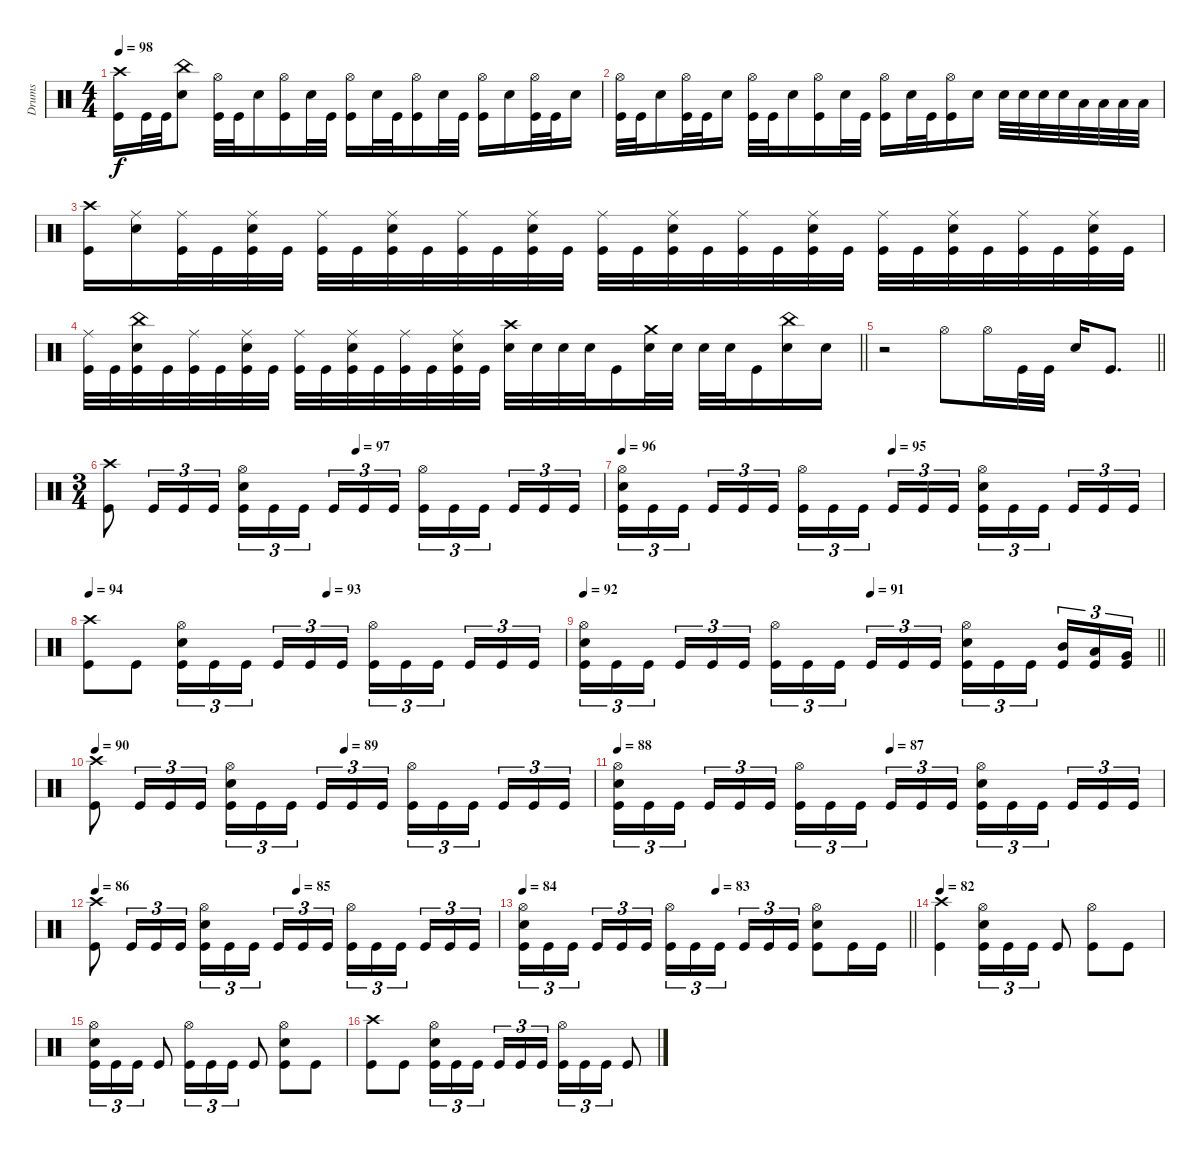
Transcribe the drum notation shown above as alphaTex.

\track ("Drums" "Drums") {instrument percussion}
\staff
\articulation defaults
\ts (4 4)
\tempo 98
\clef neutral
\ks c
("Crash high (hit)" "Kick (hit)").16{dy f} "Kick (hit)".32 "Kick (hit)".32 ("China (hit)" "Electric Snare (hit)").8 ("Hi-Hat (open)" "Kick (hit)").32 "Kick (hit)".32 "Electric Snare (hit)".16 ("Hi-Hat (open)" "Kick (hit)").16 "Electric Snare (hit)".32 "Kick (hit)".32 ("Hi-Hat (open)" "Kick (hit)").16 "Electric Snare (hit)".32 "Kick (hit)".32 ("Hi-Hat (open)" "Kick (hit)").16 "Electric Snare (hit)".32 "Kick (hit)".32 ("Hi-Hat (open)" "Kick (hit)").16 "Electric Snare (hit)".16 ("Hi-Hat (open)" "Kick (hit)").32 "Kick (hit)".32 "Electric Snare (hit)".16 |
("Hi-Hat (open)" "Kick (hit)").32 "Kick (hit)".32 "Electric Snare (hit)".16 ("Hi-Hat (open)" "Kick (hit)").32 "Kick (hit)".32 "Electric Snare (hit)".16 ("Hi-Hat (open)" "Kick (hit)").32 "Kick (hit)".32 "Electric Snare (hit)".16 ("Hi-Hat (open)" "Kick (hit)").16 "Electric Snare (hit)".32 "Kick (hit)".32 ("Hi-Hat (open)" "Kick (hit)").16 "Electric Snare (hit)".32 "Kick (hit)".32 ("Hi-Hat (open)" "Kick (hit)").16 "Electric Snare (hit)".16 "Electric Snare (hit)".32 "Electric Snare (hit)".32 "Electric Snare (hit)".32 "Electric Snare (hit)".32 "Low Tom (hit)".32 "Low Tom (hit)".32 "Low Tom (hit)".32 "Low Tom (hit)".32 |
("Crash high (hit)" "Kick (hit)").16 ("Ride (middle)" "Electric Snare (hit)").16 ("Ride (middle)" "Kick (hit)").32 "Kick (hit)".32 ("Ride (middle)" "Electric Snare (hit)" "Kick (hit)").32 "Kick (hit)".32 ("Ride (middle)" "Kick (hit)").32 "Kick (hit)".32 ("Ride (middle)" "Electric Snare (hit)" "Kick (hit)").32 "Kick (hit)".32 ("Ride (middle)" "Kick (hit)").32 "Kick (hit)".32 ("Ride (middle)" "Electric Snare (hit)" "Kick (hit)").32 "Kick (hit)".32 ("Ride (middle)" "Kick (hit)").32 "Kick (hit)".32 ("Ride (middle)" "Electric Snare (hit)" "Kick (hit)").32 "Kick (hit)".32 ("Ride (middle)" "Kick (hit)").32 "Kick (hit)".32 ("Ride (middle)" "Electric Snare (hit)" "Kick (hit)").32 "Kick (hit)".32 ("Ride (middle)" "Kick (hit)").32 "Kick (hit)".32 ("Ride (middle)" "Electric Snare (hit)" "Kick (hit)").32 "Kick (hit)".32 ("Ride (middle)" "Kick (hit)").32 "Kick (hit)".32 ("Ride (middle)" "Electric Snare (hit)" "Kick (hit)").32 "Kick (hit)".32 |
\barLineRight lightlight
("Ride (middle)" "Kick (hit)").32 "Kick (hit)".32 ("China (hit)" "Electric Snare (hit)" "Kick (hit)").32 "Kick (hit)".32 ("Ride (middle)" "Kick (hit)").32 "Kick (hit)".32 ("Ride (middle)" "Electric Snare (hit)" "Kick (hit)").32 "Kick (hit)".32 ("Ride (middle)" "Kick (hit)").32 "Kick (hit)".32 ("Ride (middle)" "Electric Snare (hit)" "Kick (hit)").32 "Kick (hit)".32 ("Ride (middle)" "Kick (hit)").32 "Kick (hit)".32 ("Ride (middle)" "Electric Snare (hit)" "Kick (hit)").32 "Kick (hit)".32 ("Crash high (hit)" "Electric Snare (hit)").32 "Electric Snare (hit)".32 "Electric Snare (hit)".32 "Electric Snare (hit)".32 "Kick (hit)".16 ("Crash medium (hit)" "Electric Snare (hit)").32 "Electric Snare (hit)".32 "Electric Snare (hit)".32 "Electric Snare (hit)".32 "Kick (hit)".16 ("China (hit)" "Electric Snare (hit)").16 "Electric Snare (hit)".16 |
\barLineRight lightlight
r.2 "Hi-Hat (open)".8 "Hi-Hat (open)".16 "Kick (hit)".32 "Kick (hit)".32 "Electric Snare (hit)".16 "Kick (hit)".8{d} |
\ts (3 4)
\section ("" "")
\tempo (97 0.5)
("Crash high (hit)" "Kick (hit)").8 "Kick (hit)".16{tu (3 2)} "Kick (hit)".16{tu (3 2)} "Kick (hit)".16{tu (3 2)} ("Hi-Hat (open)" "Electric Snare (hit)" "Kick (hit)").16{tu (3 2)} "Kick (hit)".16{tu (3 2)} "Kick (hit)".16{tu (3 2) beam splitsecondary} "Kick (hit)".16{tu (3 2)} "Kick (hit)".16{tu (3 2)} "Kick (hit)".16{tu (3 2)} ("Hi-Hat (open)" "Kick (hit)").16{tu (3 2)} "Kick (hit)".16{tu (3 2)} "Kick (hit)".16{tu (3 2) beam splitsecondary} "Kick (hit)".16{tu (3 2)} "Kick (hit)".16{tu (3 2)} "Kick (hit)".16{tu (3 2)} |
\tempo 96
\tempo (95 0.5)
("Hi-Hat (open)" "Electric Snare (hit)" "Kick (hit)").16{tu (3 2)} "Kick (hit)".16{tu (3 2)} "Kick (hit)".16{tu (3 2) beam splitsecondary} "Kick (hit)".16{tu (3 2)} "Kick (hit)".16{tu (3 2)} "Kick (hit)".16{tu (3 2)} ("Hi-Hat (open)" "Kick (hit)").16{tu (3 2)} "Kick (hit)".16{tu (3 2)} "Kick (hit)".16{tu (3 2) beam splitsecondary} "Kick (hit)".16{tu (3 2)} "Kick (hit)".16{tu (3 2)} "Kick (hit)".16{tu (3 2)} ("Hi-Hat (open)" "Electric Snare (hit)" "Kick (hit)").16{tu (3 2)} "Kick (hit)".16{tu (3 2)} "Kick (hit)".16{tu (3 2) beam splitsecondary} "Kick (hit)".16{tu (3 2)} "Kick (hit)".16{tu (3 2)} "Kick (hit)".16{tu (3 2)} |
\tempo 94
\tempo (93 0.5)
("Crash high (hit)" "Kick (hit)").8 "Kick (hit)".8 ("Hi-Hat (open)" "Electric Snare (hit)" "Kick (hit)").16{tu (3 2)} "Kick (hit)".16{tu (3 2)} "Kick (hit)".16{tu (3 2) beam splitsecondary} "Kick (hit)".16{tu (3 2)} "Kick (hit)".16{tu (3 2)} "Kick (hit)".16{tu (3 2)} ("Hi-Hat (open)" "Kick (hit)").16{tu (3 2)} "Kick (hit)".16{tu (3 2)} "Kick (hit)".16{tu (3 2) beam splitsecondary} "Kick (hit)".16{tu (3 2)} "Kick (hit)".16{tu (3 2)} "Kick (hit)".16{tu (3 2)} |
\tempo 92
\tempo (91 0.5)
\barLineRight lightlight
("Hi-Hat (open)" "Electric Snare (hit)" "Kick (hit)").16{tu (3 2)} "Kick (hit)".16{tu (3 2)} "Kick (hit)".16{tu (3 2) beam splitsecondary} "Kick (hit)".16{tu (3 2)} "Kick (hit)".16{tu (3 2)} "Kick (hit)".16{tu (3 2)} ("Hi-Hat (open)" "Kick (hit)").16{tu (3 2)} "Kick (hit)".16{tu (3 2)} "Kick (hit)".16{tu (3 2) beam splitsecondary} "Kick (hit)".16{tu (3 2)} "Kick (hit)".16{tu (3 2)} "Kick (hit)".16{tu (3 2)} ("Hi-Hat (open)" "Electric Snare (hit)" "Kick (hit)").16{tu (3 2)} "Kick (hit)".16{tu (3 2)} "Kick (hit)".16{tu (3 2) beam splitsecondary} ("Mid Tom (hit)" "Kick (hit)").16{tu (3 2)} ("Low Tom (hit)" "Kick (hit)").16{tu (3 2)} ("Very Low Tom (hit)" "Kick (hit)").16{tu (3 2)} |
\tempo 90
\tempo (89 0.5)
("Crash high (hit)" "Kick (hit)").8 "Kick (hit)".16{tu (3 2)} "Kick (hit)".16{tu (3 2)} "Kick (hit)".16{tu (3 2)} ("Hi-Hat (open)" "Electric Snare (hit)" "Kick (hit)").16{tu (3 2)} "Kick (hit)".16{tu (3 2)} "Kick (hit)".16{tu (3 2) beam splitsecondary} "Kick (hit)".16{tu (3 2)} "Kick (hit)".16{tu (3 2)} "Kick (hit)".16{tu (3 2)} ("Hi-Hat (open)" "Kick (hit)").16{tu (3 2)} "Kick (hit)".16{tu (3 2)} "Kick (hit)".16{tu (3 2) beam splitsecondary} "Kick (hit)".16{tu (3 2)} "Kick (hit)".16{tu (3 2)} "Kick (hit)".16{tu (3 2)} |
\tempo 88
\tempo (87 0.5)
("Hi-Hat (open)" "Electric Snare (hit)" "Kick (hit)").16{tu (3 2)} "Kick (hit)".16{tu (3 2)} "Kick (hit)".16{tu (3 2) beam splitsecondary} "Kick (hit)".16{tu (3 2)} "Kick (hit)".16{tu (3 2)} "Kick (hit)".16{tu (3 2)} ("Hi-Hat (open)" "Kick (hit)").16{tu (3 2)} "Kick (hit)".16{tu (3 2)} "Kick (hit)".16{tu (3 2) beam splitsecondary} "Kick (hit)".16{tu (3 2)} "Kick (hit)".16{tu (3 2)} "Kick (hit)".16{tu (3 2)} ("Hi-Hat (open)" "Electric Snare (hit)" "Kick (hit)").16{tu (3 2)} "Kick (hit)".16{tu (3 2)} "Kick (hit)".16{tu (3 2) beam splitsecondary} "Kick (hit)".16{tu (3 2)} "Kick (hit)".16{tu (3 2)} "Kick (hit)".16{tu (3 2)} |
\tempo 86
\tempo (85 0.5)
("Crash high (hit)" "Kick (hit)").8 "Kick (hit)".16{tu (3 2)} "Kick (hit)".16{tu (3 2)} "Kick (hit)".16{tu (3 2)} ("Hi-Hat (open)" "Electric Snare (hit)" "Kick (hit)").16{tu (3 2)} "Kick (hit)".16{tu (3 2)} "Kick (hit)".16{tu (3 2) beam splitsecondary} "Kick (hit)".16{tu (3 2)} "Kick (hit)".16{tu (3 2)} "Kick (hit)".16{tu (3 2)} ("Hi-Hat (open)" "Kick (hit)").16{tu (3 2)} "Kick (hit)".16{tu (3 2)} "Kick (hit)".16{tu (3 2) beam splitsecondary} "Kick (hit)".16{tu (3 2)} "Kick (hit)".16{tu (3 2)} "Kick (hit)".16{tu (3 2)} |
\tempo 84
\tempo (83 0.5)
\barLineRight lightlight
("Hi-Hat (open)" "Electric Snare (hit)" "Kick (hit)").16{tu (3 2)} "Kick (hit)".16{tu (3 2)} "Kick (hit)".16{tu (3 2) beam splitsecondary} "Kick (hit)".16{tu (3 2)} "Kick (hit)".16{tu (3 2)} "Kick (hit)".16{tu (3 2)} ("Hi-Hat (open)" "Kick (hit)").16{tu (3 2)} "Kick (hit)".16{tu (3 2)} "Kick (hit)".16{tu (3 2) beam splitsecondary} "Kick (hit)".16{tu (3 2)} "Kick (hit)".16{tu (3 2)} "Kick (hit)".16{tu (3 2)} ("Hi-Hat (open)" "Electric Snare (hit)" "Kick (hit)").8 "Kick (hit)".16 "Kick (hit)".16 |
\tempo 82
("Crash high (hit)" "Kick (hit)").4 ("Hi-Hat (open)" "Electric Snare (hit)" "Kick (hit)").16{tu (3 2)} "Kick (hit)".16{tu (3 2)} "Kick (hit)".16{tu (3 2)} "Kick (hit)".8 ("Hi-Hat (open)" "Kick (hit)").8 "Kick (hit)".8 |
("Hi-Hat (open)" "Electric Snare (hit)" "Kick (hit)").16{tu (3 2)} "Kick (hit)".16{tu (3 2)} "Kick (hit)".16{tu (3 2)} "Kick (hit)".8 ("Hi-Hat (open)" "Kick (hit)").16{tu (3 2)} "Kick (hit)".16{tu (3 2)} "Kick (hit)".16{tu (3 2)} "Kick (hit)".8 ("Hi-Hat (open)" "Electric Snare (hit)" "Kick (hit)").8 "Kick (hit)".8 |
("Crash high (hit)" "Kick (hit)").8 "Kick (hit)".8 ("Hi-Hat (open)" "Electric Snare (hit)" "Kick (hit)").16{tu (3 2)} "Kick (hit)".16{tu (3 2)} "Kick (hit)".16{tu (3 2) beam splitsecondary} "Kick (hit)".16{tu (3 2)} "Kick (hit)".16{tu (3 2)} "Kick (hit)".16{tu (3 2)} ("Hi-Hat (open)" "Kick (hit)").16{tu (3 2)} "Kick (hit)".16{tu (3 2)} "Kick (hit)".16{tu (3 2)} "Kick (hit)".8
